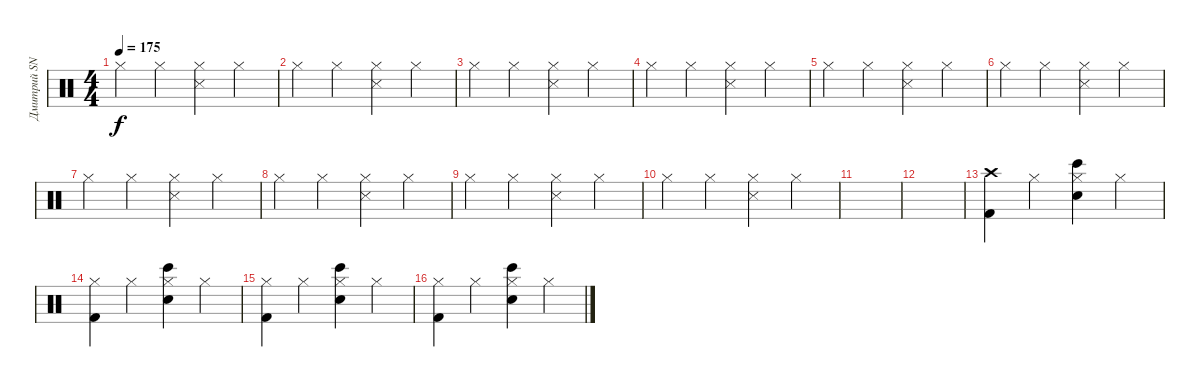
\track ("Дмитрий SNAKE Хакимов" "Дмитрий SN") {instrument percussion}
\staff {score}
\articulation defaults
\ts (4 4)
\tempo 175
\clef neutral
\ks c "Hi-Hat (closed)".4{dy f} "Hi-Hat (closed)".4
("Hi-Hat (closed)" "Snare (side stick) 3").4 "Hi-Hat (closed)".4 |
"Hi-Hat (closed)".4 "Hi-Hat (closed)".4 ("Hi-Hat (closed)" "Snare (side stick) 3").4 "Hi-Hat (closed)".4 |
"Hi-Hat (closed)".4 "Hi-Hat (closed)".4 ("Hi-Hat (closed)" "Snare (side stick) 3").4 "Hi-Hat (closed)".4 |
"Hi-Hat (closed)".4 "Hi-Hat (closed)".4 ("Hi-Hat (closed)" "Snare (side stick) 3").4 "Hi-Hat (closed)".4 |
"Hi-Hat (closed)".4 "Hi-Hat (closed)".4 ("Hi-Hat (closed)" "Snare (side stick) 3").4 "Hi-Hat (closed)".4 |
"Hi-Hat (closed)".4 "Hi-Hat (closed)".4 ("Hi-Hat (closed)" "Snare (side stick) 3").4 "Hi-Hat (closed)".4 |
"Hi-Hat (closed)".4 "Hi-Hat (closed)".4 ("Hi-Hat (closed)" "Snare (side stick) 3").4 "Hi-Hat (closed)".4 |
"Hi-Hat (closed)".4 "Hi-Hat (closed)".4 ("Hi-Hat (closed)" "Snare (side stick) 3").4 "Hi-Hat (closed)".4 |
"Hi-Hat (closed)".4 "Hi-Hat (closed)".4 ("Hi-Hat (closed)" "Snare (side stick) 3").4 "Hi-Hat (closed)".4 |
"Hi-Hat (closed)".4 "Hi-Hat (closed)".4 ("Hi-Hat (closed)" "Snare (side stick) 3").4 "Hi-Hat (closed)".4 |
|
|
("Crash high (hit)" "Kick (hit) 2").4 "Hi-Hat (closed)".4 ("Hi-Hat (closed)" "Bongo High (hit)" "Snare (hit) 2").4 "Hi-Hat (closed)".4 |
("Hi-Hat (closed)" "Kick (hit) 2").4 "Hi-Hat (closed)".4 ("Hi-Hat (closed)" "Bongo High (hit)" "Snare (hit) 2").4 "Hi-Hat (closed)".4 |
("Hi-Hat (closed)" "Kick (hit) 2").4 "Hi-Hat (closed)".4 ("Hi-Hat (closed)" "Bongo High (hit)" "Snare (hit) 2").4 "Hi-Hat (closed)".4 |
("Hi-Hat (closed)" "Kick (hit) 2").4 "Hi-Hat (closed)".4 ("Hi-Hat (closed)" "Bongo High (hit)" "Snare (hit) 2").4 "Hi-Hat (closed)".4
